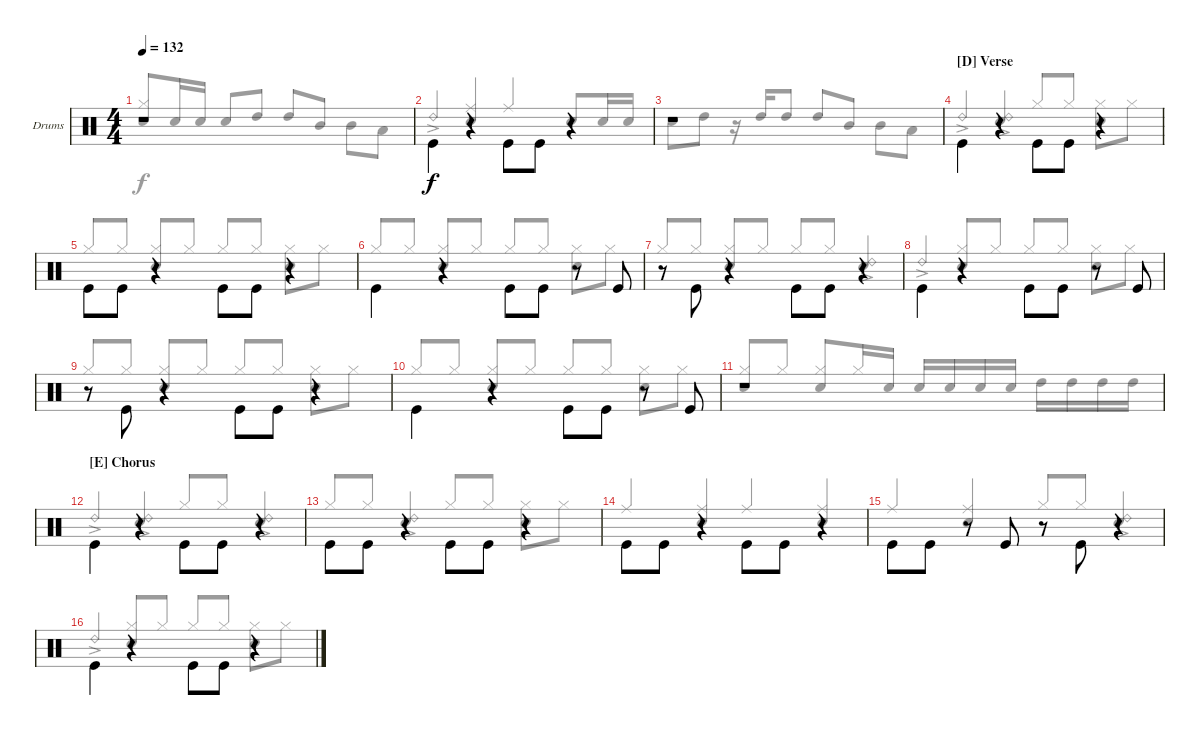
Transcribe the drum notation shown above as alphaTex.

\bracketExtendMode groupsimilarinstruments
\firstSystemTrackNameOrientation horizontal
\otherSystemsTrackNameOrientation horizontal
\track ("Drum" "Drums") {instrument percussion}
\staff {score}
\articulation defaults
\voice
\ts (4 4)
\tempo 132
\clef neutral
\scale
0.973518
\ks aminor
r.1{dy f} |
\scale
1.02648 "Kick (hit)".4{beam invert} r.4{beam invert} "Kick (hit)".8{beam invert} "Kick (hit)".8 r.4 |
\scale
0.973518 r.1 |
\section ("D" "Verse")
\scale
1.02648 "Kick (hit)".4{beam invert} r.4{beam invert} "Kick (hit)".8{beam invert} "Kick (hit)".8 r.4 |
\scale
0.973518 "Kick (hit)".8{beam invert} "Kick (hit)".8 r.4 "Kick (hit)".8{beam invert} "Kick (hit)".8 r.4 |
\scale
1.02648 "Kick (hit)".4{beam invert} r.4{beam invert} "Kick (hit)".8{beam invert} "Kick (hit)".8 r.8 "Kick (hit)".8 |
\scale
0.973518 r.8 "Kick (hit)".8{beam invert} r.4 "Kick (hit)".8{beam invert} "Kick (hit)".8 r.4 |
\scale
1.02648 "Kick (hit)".4{beam invert} r.4{beam invert} "Kick (hit)".8{beam invert} "Kick (hit)".8 r.8 "Kick (hit)".8 |
\scale
0.973518 r.8 "Kick (hit)".8{beam invert} r.4 "Kick (hit)".8{beam invert} "Kick (hit)".8 r.4 |
\scale
1.02648 "Kick (hit)".4{beam invert} r.4{beam invert} "Kick (hit)".8{beam invert} "Kick (hit)".8 r.8 "Kick (hit)".8 |
\scale
0.973518 r.1 |
\section ("E" "Chorus")
\scale
1.02648 "Kick (hit)".4{beam invert} r.4{beam invert} "Kick (hit)".8{beam invert} "Kick (hit)".8 r.4 |
\scale
0.973518 "Kick (hit)".8{beam invert} "Kick (hit)".8 r.4 "Kick (hit)".8{beam invert} "Kick (hit)".8 r.4 |
\scale
1.02648 "Kick (hit)".8{beam invert} "Kick (hit)".8 r.4 "Kick (hit)".8{beam invert} "Kick (hit)".8 r.4 |
\scale
0.973518 "Kick (hit)".8{beam invert} "Kick (hit)".8 r.8 "Kick (hit)".8 r.8 "Kick (hit)".8{beam invert} r.4 |
\scale
1.02648 "Kick (hit)".4{beam invert} r.4{beam invert} "Kick (hit)".8{beam invert} "Kick (hit)".8 r.4
\voice
\clef neutral
\ottava regular
\simile none
\scale
0.973518
\ks aminor
("Hi-Hat (closed)" "Snare (hit) 2").8{dy f beam invert} "Snare (hit) 2".16 "Snare (hit) 2".16 "Snare (hit) 2".8 "High Tom (hit)".8 "High Tom (hit)".8{beam invert} "Mid Tom (hit)".8 "Mid Tom (hit)".8 "Low Tom (hit)".8 |
\scale
1.02648 "Ride (bell) 2"{ac}.4{beam invert} ("Snare (hit) 2" "Ride (middle)").4{beam invert} "Ride (middle)".4{beam invert} "Snare (hit) 2".8{beam invert} "Snare (hit) 2".16 "Snare (hit) 2".16 |
\scale
0.973518 "Snare (hit) 2".8 "High Tom (hit)".8 r.16 "High Tom (hit)".16 "High Tom (hit)".8 "High Tom (hit)".8{beam invert} "Mid Tom (hit)".8 "Mid Tom (hit)".8 "Low Tom (hit)".8 |
\scale
1.02648 "Ride (bell) 2"{ac}.4{beam invert} ("Snare (hit) 2" "Ride (bell) 2"{ac}).4{beam invert} "Hi-Hat (closed)".8{beam invert} "Hi-Hat (closed)".8 ("Hi-Hat (closed)" "Snare (hit) 2").8 "Hi-Hat (closed)".8 |
\scale
0.973518 "Hi-Hat (closed)".8{beam invert} "Hi-Hat (closed)".8 ("Hi-Hat (closed)" "Snare (hit) 2").8 "Hi-Hat (closed)".8 "Hi-Hat (closed)".8{beam invert} "Hi-Hat (closed)".8 ("Hi-Hat (closed)" "Snare (hit) 2").8 "Hi-Hat (closed)".8 |
\scale
1.02648 "Hi-Hat (closed)".8{beam invert} "Hi-Hat (closed)".8 ("Hi-Hat (closed)" "Snare (hit) 2").8 "Hi-Hat (closed)".8 "Hi-Hat (closed)".8{beam invert} "Hi-Hat (closed)".8 ("Hi-Hat (closed)" "Snare (hit) 2").8 "Hi-Hat (closed)".8 |
\scale
0.973518 "Hi-Hat (closed)".8{beam invert} "Hi-Hat (closed)".8 ("Hi-Hat (closed)" "Snare (hit) 2").8 "Hi-Hat (closed)".8 "Hi-Hat (closed)".8{beam invert} "Hi-Hat (closed)".8 ("Snare (hit) 2" "Ride (bell) 2"{ac}).4{beam invert} |
\scale
1.02648 "Ride (bell) 2"{ac}.4{beam invert} ("Hi-Hat (closed)" "Snare (hit) 2").8{beam invert} "Hi-Hat (closed)".8 "Hi-Hat (closed)".8{beam invert} "Hi-Hat (closed)".8 ("Hi-Hat (closed)" "Snare (hit) 2").8 "Hi-Hat (closed)".8 |
\scale
0.973518 "Hi-Hat (closed)".8{beam invert} "Hi-Hat (closed)".8 ("Hi-Hat (closed)" "Snare (hit) 2").8 "Hi-Hat (closed)".8 "Hi-Hat (closed)".8{beam invert} "Hi-Hat (closed)".8 ("Hi-Hat (closed)" "Snare (hit) 2").8 "Hi-Hat (closed)".8 |
\scale
1.02648 "Hi-Hat (closed)".8{beam invert} "Hi-Hat (closed)".8 ("Hi-Hat (closed)" "Snare (hit) 2").8 "Hi-Hat (closed)".8 "Hi-Hat (closed)".8{beam invert} "Hi-Hat (closed)".8 ("Hi-Hat (closed)" "Snare (hit) 2").8 "Hi-Hat (closed)".8 |
\scale
0.973518 ("Hi-Hat (closed)" "Snare (hit) 2").8{beam invert} "Hi-Hat (closed)".8 ("Hi-Hat (closed)" "Snare (hit) 2").8 "Hi-Hat (closed)".16 "Snare (hit) 2".16 "Snare (hit) 2".16{beam invert} "Snare (hit) 2".16 "Snare (hit) 2".16 "Snare (hit) 2".16 "High Tom (hit)".16 "High Tom (hit)".16 "High Tom (hit)".16 "High Tom (hit)".16 |
\scale
1.02648 "Ride (bell) 2"{ac}.4{beam invert} ("Ride (bell) 2"{ac} "Snare (hit) 2").4{beam invert} "Hi-Hat (closed)".8{beam invert} "Hi-Hat (closed)".8 ("Ride (bell) 2"{ac} "Snare (hit) 2").4{beam invert} |
\scale
0.973518 "Hi-Hat (closed)".8{beam invert} "Hi-Hat (closed)".8 ("Ride (bell) 2"{ac} "Snare (hit) 2").4{beam invert} "Hi-Hat (closed)".8{beam invert} "Hi-Hat (closed)".8 ("Hi-Hat (closed)" "Snare (hit) 2").8 "Hi-Hat (closed)".8 |
\scale
1.02648 "Ride (middle)".4{beam invert} ("Snare (hit) 2" "Ride (middle)").4{beam invert} "Ride (middle)".4{beam invert} ("Snare (hit) 2" "Ride (middle)").4{beam invert} |
\scale
0.973518 "Ride (middle)".4{beam invert} ("Snare (hit) 2" "Ride (middle)").4{beam invert} "Hi-Hat (closed)".8{beam invert} "Hi-Hat (closed)".8 ("Ride (bell) 2"{ac} "Snare (hit) 2").4{beam invert} |
\scale
1.02648 "Ride (bell) 2"{ac}.4{beam invert} ("Hi-Hat (closed)" "Snare (hit) 2").8{beam invert} "Hi-Hat (closed)".8 "Hi-Hat (closed)".8{beam invert} "Hi-Hat (closed)".8 ("Hi-Hat (closed)" "Snare (hit) 2").8 "Hi-Hat (closed)".8
